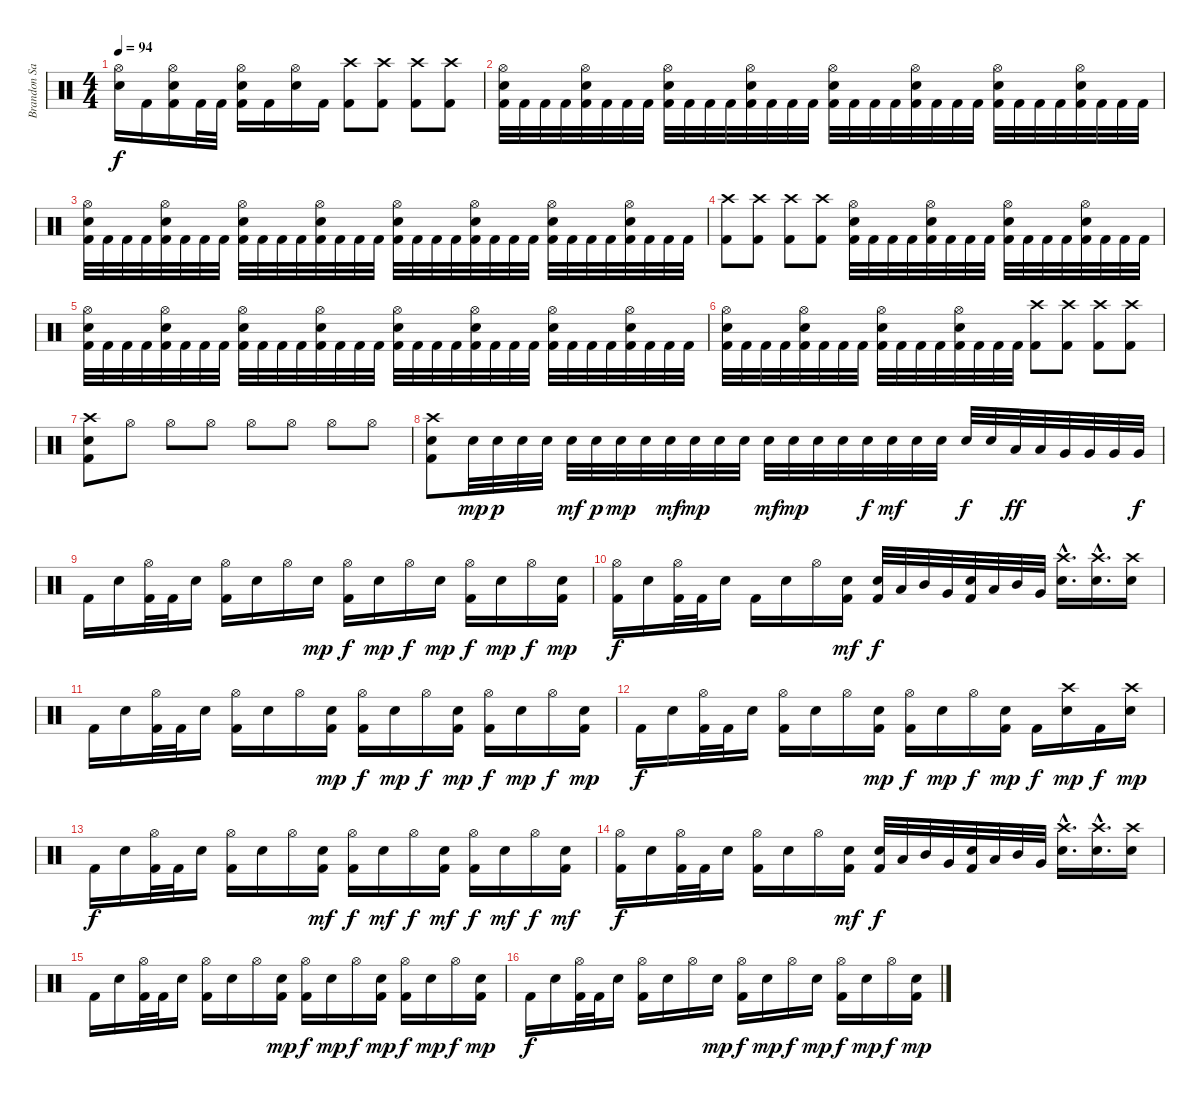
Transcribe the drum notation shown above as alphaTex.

\track ("Brandon Saller  (drums)" "Brandon Sa") {instrument percussion}
\staff {score}
\articulation defaults
\ts (4 4)
\tempo 94
\clef neutral
\ks c
("Hi-Hat (open)" "Electric Snare (hit)").16{dy f} "Kick (hit) 2".16 ("Hi-Hat (open)" "Electric Snare (hit)" "Kick (hit) 2").16 "Kick (hit) 2".32 "Kick (hit) 2".32 ("Hi-Hat (open)" "Electric Snare (hit)" "Kick (hit) 2").16 "Kick (hit) 2".16 ("Hi-Hat (open)" "Electric Snare (hit)").16 "Kick (hit) 2".16 ("Crash high (hit)" "Kick (hit) 2").8 ("Crash high (hit)" "Kick (hit) 2").8 ("Crash high (hit)" "Kick (hit) 2").8 ("Crash high (hit)" "Kick (hit) 2").8 |
("Hi-Hat (open)" "Electric Snare (hit)" "Kick (hit) 2").32 "Kick (hit) 2".32 "Kick (hit) 2".32 "Kick (hit) 2".32 ("Hi-Hat (open)" "Electric Snare (hit)" "Kick (hit) 2").32 "Kick (hit) 2".32 "Kick (hit) 2".32 "Kick (hit) 2".32 ("Hi-Hat (open)" "Electric Snare (hit)" "Kick (hit) 2").32 "Kick (hit) 2".32 "Kick (hit) 2".32 "Kick (hit) 2".32 ("Hi-Hat (open)" "Electric Snare (hit)" "Kick (hit) 2").32 "Kick (hit) 2".32 "Kick (hit) 2".32 "Kick (hit) 2".32 ("Hi-Hat (open)" "Electric Snare (hit)" "Kick (hit) 2").32 "Kick (hit) 2".32 "Kick (hit) 2".32 "Kick (hit) 2".32 ("Hi-Hat (open)" "Electric Snare (hit)" "Kick (hit) 2").32 "Kick (hit) 2".32 "Kick (hit) 2".32 "Kick (hit) 2".32 ("Hi-Hat (open)" "Electric Snare (hit)" "Kick (hit) 2").32 "Kick (hit) 2".32 "Kick (hit) 2".32 "Kick (hit) 2".32 ("Hi-Hat (open)" "Electric Snare (hit)" "Kick (hit) 2").32 "Kick (hit) 2".32 "Kick (hit) 2".32 "Kick (hit) 2".32 |
("Hi-Hat (open)" "Electric Snare (hit)" "Kick (hit) 2").32 "Kick (hit) 2".32 "Kick (hit) 2".32 "Kick (hit) 2".32 ("Hi-Hat (open)" "Electric Snare (hit)" "Kick (hit) 2").32 "Kick (hit) 2".32 "Kick (hit) 2".32 "Kick (hit) 2".32 ("Hi-Hat (open)" "Electric Snare (hit)" "Kick (hit) 2").32 "Kick (hit) 2".32 "Kick (hit) 2".32 "Kick (hit) 2".32 ("Hi-Hat (open)" "Electric Snare (hit)" "Kick (hit) 2").32 "Kick (hit) 2".32 "Kick (hit) 2".32 "Kick (hit) 2".32 ("Hi-Hat (open)" "Electric Snare (hit)" "Kick (hit) 2").32 "Kick (hit) 2".32 "Kick (hit) 2".32 "Kick (hit) 2".32 ("Hi-Hat (open)" "Electric Snare (hit)" "Kick (hit) 2").32 "Kick (hit) 2".32 "Kick (hit) 2".32 "Kick (hit) 2".32 ("Hi-Hat (open)" "Electric Snare (hit)" "Kick (hit) 2").32 "Kick (hit) 2".32 "Kick (hit) 2".32 "Kick (hit) 2".32 ("Hi-Hat (open)" "Electric Snare (hit)" "Kick (hit) 2").32 "Kick (hit) 2".32 "Kick (hit) 2".32 "Kick (hit) 2".32 |
("Crash high (hit)" "Kick (hit) 2").8 ("Crash high (hit)" "Kick (hit) 2").8 ("Crash high (hit)" "Kick (hit) 2").8 ("Crash high (hit)" "Kick (hit) 2").8 ("Hi-Hat (open)" "Electric Snare (hit)" "Kick (hit) 2").32 "Kick (hit) 2".32 "Kick (hit) 2".32 "Kick (hit) 2".32 ("Hi-Hat (open)" "Electric Snare (hit)" "Kick (hit) 2").32 "Kick (hit) 2".32 "Kick (hit) 2".32 "Kick (hit) 2".32 ("Hi-Hat (open)" "Electric Snare (hit)" "Kick (hit) 2").32 "Kick (hit) 2".32 "Kick (hit) 2".32 "Kick (hit) 2".32 ("Hi-Hat (open)" "Electric Snare (hit)" "Kick (hit) 2").32 "Kick (hit) 2".32 "Kick (hit) 2".32 "Kick (hit) 2".32 |
("Hi-Hat (open)" "Electric Snare (hit)" "Kick (hit) 2").32 "Kick (hit) 2".32 "Kick (hit) 2".32 "Kick (hit) 2".32 ("Hi-Hat (open)" "Electric Snare (hit)" "Kick (hit) 2").32 "Kick (hit) 2".32 "Kick (hit) 2".32 "Kick (hit) 2".32 ("Hi-Hat (open)" "Electric Snare (hit)" "Kick (hit) 2").32 "Kick (hit) 2".32 "Kick (hit) 2".32 "Kick (hit) 2".32 ("Hi-Hat (open)" "Electric Snare (hit)" "Kick (hit) 2").32 "Kick (hit) 2".32 "Kick (hit) 2".32 "Kick (hit) 2".32 ("Hi-Hat (open)" "Electric Snare (hit)" "Kick (hit) 2").32 "Kick (hit) 2".32 "Kick (hit) 2".32 "Kick (hit) 2".32 ("Hi-Hat (open)" "Electric Snare (hit)" "Kick (hit) 2").32 "Kick (hit) 2".32 "Kick (hit) 2".32 "Kick (hit) 2".32 ("Hi-Hat (open)" "Electric Snare (hit)" "Kick (hit) 2").32 "Kick (hit) 2".32 "Kick (hit) 2".32 "Kick (hit) 2".32 ("Hi-Hat (open)" "Electric Snare (hit)" "Kick (hit) 2").32 "Kick (hit) 2".32 "Kick (hit) 2".32 "Kick (hit) 2".32 |
("Hi-Hat (open)" "Electric Snare (hit)" "Kick (hit) 2").32 "Kick (hit) 2".32 "Kick (hit) 2".32 "Kick (hit) 2".32 ("Hi-Hat (open)" "Electric Snare (hit)" "Kick (hit) 2").32 "Kick (hit) 2".32 "Kick (hit) 2".32 "Kick (hit) 2".32 ("Hi-Hat (open)" "Electric Snare (hit)" "Kick (hit) 2").32 "Kick (hit) 2".32 "Kick (hit) 2".32 "Kick (hit) 2".32 ("Hi-Hat (open)" "Electric Snare (hit)" "Kick (hit) 2").32 "Kick (hit) 2".32 "Kick (hit) 2".32 "Kick (hit) 2".32 ("Crash high (hit)" "Kick (hit) 2").8 ("Crash high (hit)" "Kick (hit) 2").8 ("Crash high (hit)" "Kick (hit) 2").8 ("Crash high (hit)" "Kick (hit) 2").8 |
("Crash high (hit)" "Electric Snare (hit)" "Kick (hit) 2").8 "Hi-Hat (open)".8 "Hi-Hat (open)".8 "Hi-Hat (open)".8 "Hi-Hat (open)".8 "Hi-Hat (open)".8 "Hi-Hat (open)".8 "Hi-Hat (open)".8 |
("Crash high (hit)" "Electric Snare (hit)" "Kick (hit) 2").8 "Electric Snare (hit)".32{dy mp} "Electric Snare (hit)".32{dy p} "Electric Snare (hit)".32 "Electric Snare (hit)".32 "Electric Snare (hit)".32{dy mf} "Electric Snare (hit)".32{dy p} "Electric Snare (hit)".32{dy mp} "Electric Snare (hit)".32 "Electric Snare (hit)".32{dy mf} "Electric Snare (hit)".32{dy mp} "Electric Snare (hit)".32 "Electric Snare (hit)".32 "Electric Snare (hit)".32{dy mf} "Electric Snare (hit)".32{dy mp} "Electric Snare (hit)".32 "Electric Snare (hit)".32 "Electric Snare (hit)".32{dy f} "Electric Snare (hit)".32{dy mf} "Electric Snare (hit)".32 "Electric Snare (hit)".32 "Electric Snare (hit)".32{dy f} "Electric Snare (hit)".32 "Low Tom (hit)".32{dy ff} "Low Tom (hit)".32 "Very Low Tom (hit)".32 "Very Low Tom (hit)".32 "Very Low Tom (hit)".32 "Very Low Tom (hit)".32{dy f} |
"Kick (hit) 2".16 "Electric Snare (hit)".16 ("Hi-Hat (open)" "Kick (hit) 2").32 "Kick (hit) 2".32 "Electric Snare (hit)".16 ("Hi-Hat (open)" "Kick (hit) 2").16 "Electric Snare (hit)".16 "Hi-Hat (open)".16 "Electric Snare (hit)".16{dy mp} ("Hi-Hat (open)" "Kick (hit) 2").16{dy f} "Electric Snare (hit)".16{dy mp} "Hi-Hat (open)".16{dy f} "Electric Snare (hit)".16{dy mp} ("Hi-Hat (open)" "Kick (hit) 2").16{dy f} "Electric Snare (hit)".16{dy mp} "Hi-Hat (open)".16{dy f} ("Electric Snare (hit)" "Kick (hit) 2").16{dy mp} |
("Hi-Hat (open)" "Kick (hit) 2").16{dy f} "Electric Snare (hit)".16 ("Hi-Hat (open)" "Kick (hit) 2").32 "Kick (hit) 2".32 "Electric Snare (hit)".16 "Kick (hit) 2".16 "Electric Snare (hit)".16 "Hi-Hat (open)".16 ("Electric Snare (hit)" "Kick (hit) 2").16{dy mf} ("Electric Snare (hit)" "Kick (hit) 2").32{dy f} "Low Tom (hit)".32 "Mid Tom (hit)".32 "Very Low Tom (hit)".32 ("Electric Snare (hit)" "Kick (hit) 2").32 "Low Tom (hit)".32 "Mid Tom (hit)".32 "Very Low Tom (hit)".32 ("Crash high (hit)"{hac} "Electric Snare (hit)"{hac}).16{d} ("Crash high (hit)"{hac} "Electric Snare (hit)"{hac}).16{d} ("Crash high (hit)" "Electric Snare (hit)").16 |
"Kick (hit) 2".16 "Electric Snare (hit)".16 ("Hi-Hat (open)" "Kick (hit) 2").32 "Kick (hit) 2".32 "Electric Snare (hit)".16 ("Hi-Hat (open)" "Kick (hit) 2").16 "Electric Snare (hit)".16 "Hi-Hat (open)".16 ("Electric Snare (hit)" "Kick (hit) 2").16{dy mp} ("Hi-Hat (open)" "Kick (hit) 2").16{dy f} "Electric Snare (hit)".16{dy mp} "Hi-Hat (open)".16{dy f} ("Electric Snare (hit)" "Kick (hit) 2").16{dy mp} ("Hi-Hat (open)" "Kick (hit) 2").16{dy f} "Electric Snare (hit)".16{dy mp} "Hi-Hat (open)".16{dy f} ("Electric Snare (hit)" "Kick (hit) 2").16{dy mp} |
"Kick (hit) 2".16{dy f} "Electric Snare (hit)".16 ("Hi-Hat (open)" "Kick (hit) 2").32 "Kick (hit) 2".32 "Electric Snare (hit)".16 ("Hi-Hat (open)" "Kick (hit) 2").16 "Electric Snare (hit)".16 "Hi-Hat (open)".16 ("Electric Snare (hit)" "Kick (hit) 2").16{dy mp} ("Hi-Hat (open)" "Kick (hit) 2").16{dy f} "Electric Snare (hit)".16{dy mp} "Hi-Hat (open)".16{dy f} ("Electric Snare (hit)" "Kick (hit) 2").16{dy mp} "Kick (hit) 2".16{dy f} ("Crash high (hit)" "Electric Snare (hit)").16{dy mp} "Kick (hit) 2".16{dy f} ("Crash high (hit)" "Electric Snare (hit)").16{dy mp} |
"Kick (hit) 2".16{dy f} "Electric Snare (hit)".16 ("Hi-Hat (open)" "Kick (hit) 2").32 "Kick (hit) 2".32 "Electric Snare (hit)".16 ("Hi-Hat (open)" "Kick (hit) 2").16 "Electric Snare (hit)".16 "Hi-Hat (open)".16 ("Electric Snare (hit)" "Kick (hit) 2").16{dy mf} ("Hi-Hat (open)" "Kick (hit) 2").16{dy f} "Electric Snare (hit)".16{dy mf} "Hi-Hat (open)".16{dy f} ("Electric Snare (hit)" "Kick (hit) 2").16{dy mf} ("Hi-Hat (open)" "Kick (hit) 2").16{dy f} "Electric Snare (hit)".16{dy mf} "Hi-Hat (open)".16{dy f} ("Electric Snare (hit)" "Kick (hit) 2").16{dy mf} |
("Hi-Hat (open)" "Kick (hit) 2").16{dy f} "Electric Snare (hit)".16 ("Hi-Hat (open)" "Kick (hit) 2").32 "Kick (hit) 2".32 "Electric Snare (hit)".16 ("Hi-Hat (open)" "Kick (hit) 2").16 "Electric Snare (hit)".16 "Hi-Hat (open)".16 ("Electric Snare (hit)" "Kick (hit) 2").16{dy mf} ("Electric Snare (hit)" "Kick (hit) 2").32{dy f} "Low Tom (hit)".32 "Mid Tom (hit)".32 "Very Low Tom (hit)".32 ("Electric Snare (hit)" "Kick (hit) 2").32 "Low Tom (hit)".32 "Mid Tom (hit)".32 "Very Low Tom (hit)".32 ("Crash high (hit)"{hac} "Electric Snare (hit)"{hac}).16{d} ("Crash high (hit)"{hac} "Electric Snare (hit)"{hac}).16{d} ("Crash high (hit)" "Electric Snare (hit)").16 |
"Kick (hit) 2".16 "Electric Snare (hit)".16 ("Hi-Hat (open)" "Kick (hit) 2").32 "Kick (hit) 2".32 "Electric Snare (hit)".16 ("Hi-Hat (open)" "Kick (hit) 2").16 "Electric Snare (hit)".16 "Hi-Hat (open)".16 ("Electric Snare (hit)" "Kick (hit) 2").16{dy mp} ("Hi-Hat (open)" "Kick (hit) 2").16{dy f} "Electric Snare (hit)".16{dy mp} "Hi-Hat (open)".16{dy f} ("Electric Snare (hit)" "Kick (hit) 2").16{dy mp} ("Hi-Hat (open)" "Kick (hit) 2").16{dy f} "Electric Snare (hit)".16{dy mp} "Hi-Hat (open)".16{dy f} ("Electric Snare (hit)" "Kick (hit) 2").16{dy mp} |
"Kick (hit) 2".16{dy f} "Electric Snare (hit)".16 ("Hi-Hat (open)" "Kick (hit) 2").32 "Kick (hit) 2".32 "Electric Snare (hit)".16 ("Hi-Hat (open)" "Kick (hit) 2").16 "Electric Snare (hit)".16 "Hi-Hat (open)".16 "Electric Snare (hit)".16{dy mp} ("Hi-Hat (open)" "Kick (hit) 2").16{dy f} "Electric Snare (hit)".16{dy mp} "Hi-Hat (open)".16{dy f} "Electric Snare (hit)".16{dy mp} ("Hi-Hat (open)" "Kick (hit) 2").16{dy f} "Electric Snare (hit)".16{dy mp} "Hi-Hat (open)".16{dy f} ("Electric Snare (hit)" "Kick (hit) 2").16{dy mp}
